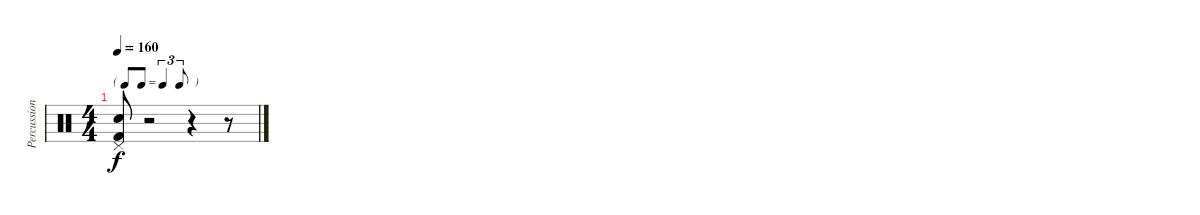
\track ("Percussion" "Percussion") {instrument percussion}
\staff {score}
\articulation defaults
\ts (4 4)
\tf triplet8th
\tempo 160
\clef neutral
\ks c
("Snare (hit) 2" "Pedal Hi-Hat (hit)" "Kick (hit) 2").8{dy f} r.2 r.4 r.8
